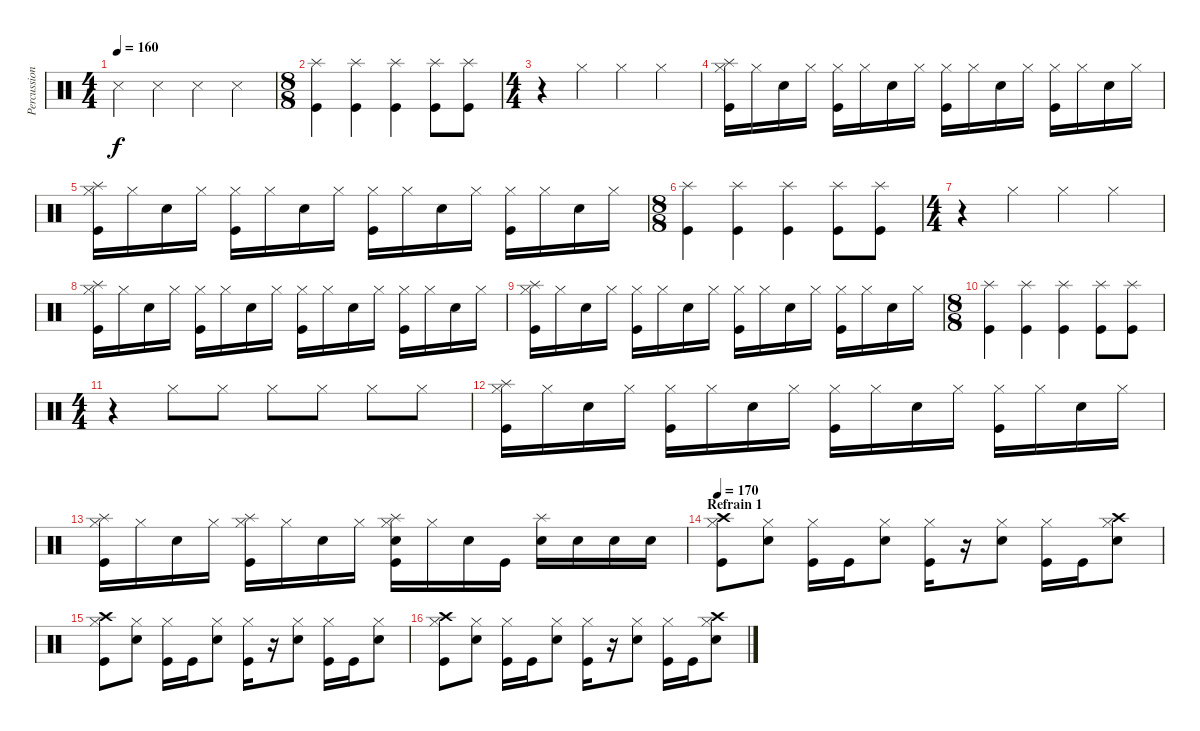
\track ("Percussion" "Percussion") {instrument percussion}
\staff {score}
\articulation defaults
\ts (4 4)
\tempo 160
\clef neutral
\ks c "Snare (side stick) 3".4{dy f} "Snare (side stick) 3".4 "Snare (side stick) 3".4 "Snare (side stick) 3".4
|
\ts (8 8)
("Splash (hit)" "Kick (hit)").4 ("Splash (hit)" "Kick (hit)").4 ("Splash (hit)" "Kick (hit)").4 ("Splash (hit)" "Kick (hit)").8 ("Splash (hit)" "Kick (hit)").8 |
\ts (4 4)
r.4 "Hi-Hat (closed)".4 "Hi-Hat (closed)".4 "Hi-Hat (closed)".4 |
("Splash (hit)" "Hi-Hat (closed)" "Kick (hit)").16 "Hi-Hat (closed)".16 "Electric Snare (hit)".16 "Hi-Hat (closed)".16 ("Hi-Hat (closed)" "Kick (hit)").16 "Hi-Hat (closed)".16 "Electric Snare (hit)".16 "Hi-Hat (closed)".16 ("Hi-Hat (closed)" "Kick (hit)").16 "Hi-Hat (closed)".16 "Electric Snare (hit)".16 "Hi-Hat (closed)".16 ("Hi-Hat (closed)" "Kick (hit)").16 "Hi-Hat (closed)".16 "Electric Snare (hit)".16 "Hi-Hat (closed)".16 |
("Splash (hit)" "Hi-Hat (closed)" "Kick (hit)").16 "Hi-Hat (closed)".16 "Electric Snare (hit)".16 "Hi-Hat (closed)".16 ("Hi-Hat (closed)" "Kick (hit)").16 "Hi-Hat (closed)".16 "Electric Snare (hit)".16 "Hi-Hat (closed)".16 ("Hi-Hat (closed)" "Kick (hit)").16 "Hi-Hat (closed)".16 "Electric Snare (hit)".16 "Hi-Hat (closed)".16 ("Hi-Hat (closed)" "Kick (hit)").16 "Hi-Hat (closed)".16 "Electric Snare (hit)".16 "Hi-Hat (closed)".16 |
\ts (8 8)
("Splash (hit)" "Kick (hit)").4 ("Splash (hit)" "Kick (hit)").4 ("Splash (hit)" "Kick (hit)").4 ("Splash (hit)" "Kick (hit)").8 ("Splash (hit)" "Kick (hit)").8 |
\ts (4 4)
r.4 "Hi-Hat (closed)".4 "Hi-Hat (closed)".4 "Hi-Hat (closed)".4 |
("Splash (hit)" "Hi-Hat (closed)" "Kick (hit)").16 "Hi-Hat (closed)".16 "Electric Snare (hit)".16 "Hi-Hat (closed)".16 ("Hi-Hat (closed)" "Kick (hit)").16 "Hi-Hat (closed)".16 "Electric Snare (hit)".16 "Hi-Hat (closed)".16 ("Hi-Hat (closed)" "Kick (hit)").16 "Hi-Hat (closed)".16 "Electric Snare (hit)".16 "Hi-Hat (closed)".16 ("Hi-Hat (closed)" "Kick (hit)").16 "Hi-Hat (closed)".16 "Electric Snare (hit)".16 "Hi-Hat (closed)".16 |
("Splash (hit)" "Hi-Hat (closed)" "Kick (hit)").16 "Hi-Hat (closed)".16 "Electric Snare (hit)".16 "Hi-Hat (closed)".16 ("Hi-Hat (closed)" "Kick (hit)").16 "Hi-Hat (closed)".16 "Electric Snare (hit)".16 "Hi-Hat (closed)".16 ("Hi-Hat (closed)" "Kick (hit)").16 "Hi-Hat (closed)".16 "Electric Snare (hit)".16 "Hi-Hat (closed)".16 ("Hi-Hat (closed)" "Kick (hit)").16 "Hi-Hat (closed)".16 "Electric Snare (hit)".16 "Hi-Hat (closed)".16 |
\ts (8 8)
("Splash (hit)" "Kick (hit)").4 ("Splash (hit)" "Kick (hit)").4 ("Splash (hit)" "Kick (hit)").4 ("Splash (hit)" "Kick (hit)").8 ("Splash (hit)" "Kick (hit)").8 |
\ts (4 4)
r.4 "Hi-Hat (closed)".8 "Hi-Hat (closed)".8 "Hi-Hat (closed)".8 "Hi-Hat (closed)".8 "Hi-Hat (closed)".8 "Hi-Hat (closed)".8 |
("Splash (hit)" "Hi-Hat (closed)" "Kick (hit)").16 "Hi-Hat (closed)".16 "Electric Snare (hit)".16 "Hi-Hat (closed)".16 ("Hi-Hat (closed)" "Kick (hit)").16 "Hi-Hat (closed)".16 "Electric Snare (hit)".16 "Hi-Hat (closed)".16 ("Hi-Hat (closed)" "Kick (hit)").16 "Hi-Hat (closed)".16 "Electric Snare (hit)".16 "Hi-Hat (closed)".16 ("Hi-Hat (closed)" "Kick (hit)").16 "Hi-Hat (closed)".16 "Electric Snare (hit)".16 "Hi-Hat (closed)".16 |
("Splash (hit)" "Hi-Hat (closed)" "Kick (hit)").16 "Hi-Hat (closed)".16 "Electric Snare (hit)".16 "Hi-Hat (closed)".16 ("Splash (hit)" "Hi-Hat (closed)" "Kick (hit)").16 "Hi-Hat (closed)".16 "Electric Snare (hit)".16 "Hi-Hat (closed)".16 ("Splash (hit)" "Hi-Hat (closed)" "Electric Snare (hit)" "Kick (hit)").16 "Hi-Hat (closed)".16 "Electric Snare (hit)".16 "Kick (hit)".16 ("Splash (hit)" "Electric Snare (hit)").16 "Electric Snare (hit)".16 "Electric Snare (hit)".16 "Electric Snare (hit)".16 |
\section ("" "Refrain 1")
\tempo 170
("Crash high (hit)" "Hi-Hat (closed)" "Kick (hit)").8 ("Hi-Hat (closed)" "Electric Snare (hit)").8 ("Hi-Hat (closed)" "Kick (hit)").16 "Kick (hit)".16 ("Hi-Hat (closed)" "Electric Snare (hit)").8 ("Hi-Hat (closed)" "Kick (hit)").16 r.16 ("Hi-Hat (closed)" "Electric Snare (hit)").8 ("Hi-Hat (closed)" "Kick (hit)").16 "Kick (hit)".16 ("Crash high (hit)" "Hi-Hat (closed)" "Electric Snare (hit)").8 |
("Crash high (hit)" "Hi-Hat (closed)" "Kick (hit)").8 ("Hi-Hat (closed)" "Electric Snare (hit)").8 ("Hi-Hat (closed)" "Kick (hit)").16 "Kick (hit)".16 ("Hi-Hat (closed)" "Electric Snare (hit)").8 ("Hi-Hat (closed)" "Kick (hit)").16 r.16 ("Hi-Hat (closed)" "Electric Snare (hit)").8 ("Hi-Hat (closed)" "Kick (hit)").16 "Kick (hit)".16 ("Hi-Hat (closed)" "Electric Snare (hit)").8 |
("Crash high (hit)" "Hi-Hat (closed)" "Kick (hit)").8 ("Hi-Hat (closed)" "Electric Snare (hit)").8 ("Hi-Hat (closed)" "Kick (hit)").16 "Kick (hit)".16 ("Hi-Hat (closed)" "Electric Snare (hit)").8 ("Hi-Hat (closed)" "Kick (hit)").16 r.16 ("Hi-Hat (closed)" "Electric Snare (hit)").8 ("Hi-Hat (closed)" "Kick (hit)").16 "Kick (hit)".16 ("Crash high (hit)" "Hi-Hat (closed)" "Electric Snare (hit)").8
